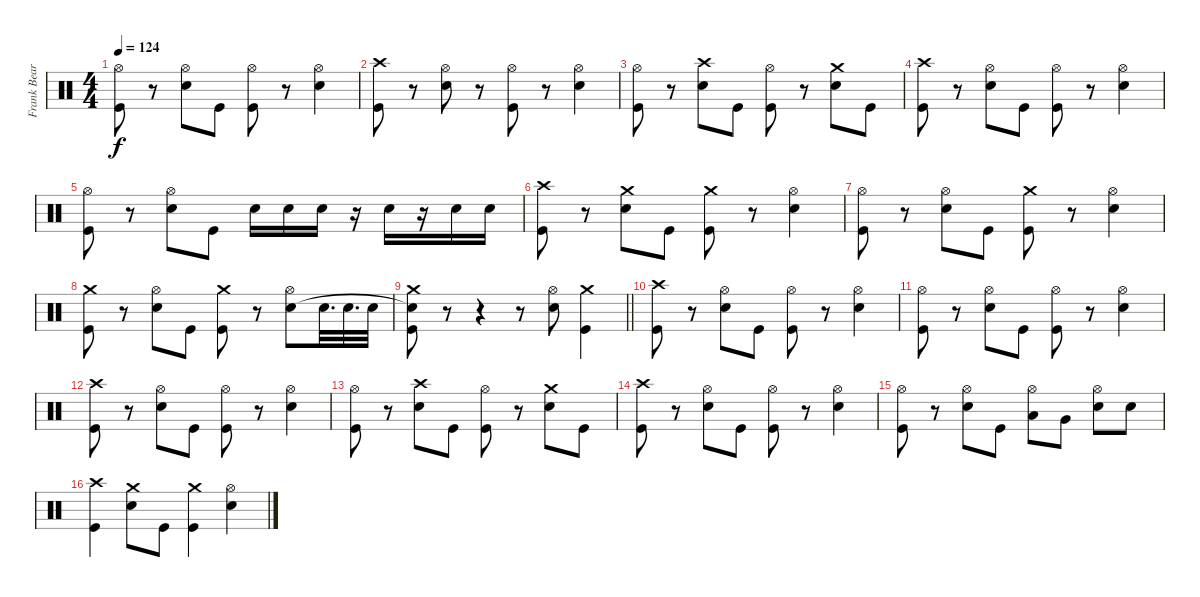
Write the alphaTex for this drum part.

\track ("Frank Beard" "Frank Bear") {instrument percussion}
\staff {score}
\articulation defaults
\ts (4 4)
\tempo 124
\clef neutral
\ks c
("Hi-Hat (open)" "Kick (hit)").8{dy f} r.8 ("Hi-Hat (open)" "Electric Snare (hit)").8 "Kick (hit)".8 ("Hi-Hat (open)" "Kick (hit)").8 r.8 ("Hi-Hat (open)" "Electric Snare (hit)").4 |
("Crash high (hit)" "Kick (hit)").8 r.8 ("Hi-Hat (open)" "Electric Snare (hit)").8 r.8 ("Hi-Hat (open)" "Kick (hit)").8 r.8 ("Hi-Hat (open)" "Electric Snare (hit)").4 |
("Hi-Hat (open)" "Kick (hit)").8 r.8 ("Crash high (hit)" "Electric Snare (hit)").8 "Kick (hit)".8 ("Hi-Hat (open)" "Kick (hit)").8 r.8 ("Crash medium (hit)" "Electric Snare (hit)").8 "Kick (hit)".8 |
("Crash high (hit)" "Kick (hit)").8 r.8 ("Hi-Hat (open)" "Electric Snare (hit)").8 "Kick (hit)".8 ("Hi-Hat (open)" "Kick (hit)").8 r.8 ("Hi-Hat (open)" "Electric Snare (hit)").4 |
("Hi-Hat (open)" "Kick (hit)").8 r.8 ("Hi-Hat (open)" "Electric Snare (hit)").8 "Kick (hit)".8 "Electric Snare (hit)".16 "Electric Snare (hit)".16 "Electric Snare (hit)".16 r.16 "Electric Snare (hit)".16 r.16 "Electric Snare (hit)".16 "Electric Snare (hit)".16 |
("Crash high (hit)" "Kick (hit)").8 r.8 ("Crash medium (hit)" "Electric Snare (hit)").8 "Kick (hit)".8 ("Crash medium (hit)" "Kick (hit)").8 r.8 ("Hi-Hat (open)" "Electric Snare (hit)").4 |
("Hi-Hat (open)" "Kick (hit)").8 r.8 ("Hi-Hat (open)" "Electric Snare (hit)").8 "Kick (hit)".8 ("Crash medium (hit)" "Kick (hit)").8 r.8 ("Hi-Hat (open)" "Electric Snare (hit)").4 |
("Crash medium (hit)" "Kick (hit)").8 r.8 ("Hi-Hat (open)" "Electric Snare (hit)").8 "Kick (hit)".8 ("Crash medium (hit)" "Kick (hit)").8 r.8 ("Hi-Hat (open)" "Electric Snare (hit)").8 "Electric Snare (hit)".32{d} "Electric Snare (hit)".32{d} "Electric Snare (hit)".32 |
\barLineRight lightlight
("Crash medium (hit)" "Electric Snare (hit)"{t} "Kick (hit)").8 r.8 r.4 r.8 ("Hi-Hat (open)" "Electric Snare (hit)").8 ("Crash medium (hit)" "Kick (hit)").4 |
("Crash high (hit)" "Kick (hit)").8 r.8 ("Hi-Hat (open)" "Electric Snare (hit)").8 "Kick (hit)".8 ("Hi-Hat (open)" "Kick (hit)").8 r.8 ("Hi-Hat (open)" "Electric Snare (hit)").4 |
("Hi-Hat (open)" "Kick (hit)").8 r.8 ("Hi-Hat (open)" "Electric Snare (hit)").8 "Kick (hit)".8 ("Hi-Hat (open)" "Kick (hit)").8 r.8 ("Hi-Hat (open)" "Electric Snare (hit)").4 |
("Crash high (hit)" "Kick (hit)").8 r.8 ("Hi-Hat (open)" "Electric Snare (hit)").8 "Kick (hit)".8 ("Hi-Hat (open)" "Kick (hit)").8 r.8 ("Hi-Hat (open)" "Electric Snare (hit)").4 |
("Hi-Hat (open)" "Kick (hit)").8 r.8 ("Crash high (hit)" "Electric Snare (hit)").8 "Kick (hit)".8 ("Hi-Hat (open)" "Kick (hit)").8 r.8 ("Crash medium (hit)" "Electric Snare (hit)").8 "Kick (hit)".8 |
("Crash high (hit)" "Kick (hit)").8 r.8 ("Hi-Hat (open)" "Electric Snare (hit)").8 "Kick (hit)".8 ("Hi-Hat (open)" "Kick (hit)").8 r.8 ("Hi-Hat (open)" "Electric Snare (hit)").4 |
("Hi-Hat (open)" "Kick (hit)").8 r.8 ("Hi-Hat (open)" "Electric Snare (hit)").8 "Kick (hit)".8 ("Hi-Hat (open)" "Low Tom (hit)").8 "Very Low Tom (hit)".8 ("Hi-Hat (open)" "Snare (hit) 2").8 "Snare (hit) 2".8 |
("Crash high (hit)" "Kick (hit)").4 ("Crash medium (hit)" "Electric Snare (hit)").8 "Kick (hit)".8 ("Crash medium (hit)" "Kick (hit)").4 ("Hi-Hat (open)" "Electric Snare (hit)").4
